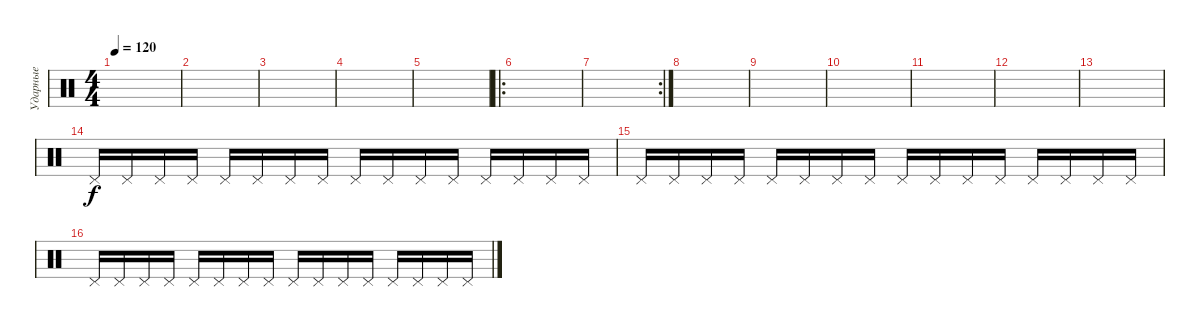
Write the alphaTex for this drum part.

\track ("Ударные" "Ударные") {instrument percussion}
\staff {score}
\articulation defaults
\ts (4 4)
\tempo 120
\clef neutral
\ks c
|
|
|
|
|
\ro
|
\rc 2
|
|
|
|
|
|
|
"Pedal Hi-Hat (hit)".16 "Pedal Hi-Hat (hit)".16 "Pedal Hi-Hat (hit)".16 "Pedal Hi-Hat (hit)".16 "Pedal Hi-Hat (hit)".16 "Pedal Hi-Hat (hit)".16 "Pedal Hi-Hat (hit)".16 "Pedal Hi-Hat (hit)".16 "Pedal Hi-Hat (hit)".16 "Pedal Hi-Hat (hit)".16 "Pedal Hi-Hat (hit)".16 "Pedal Hi-Hat (hit)".16 "Pedal Hi-Hat (hit)".16 "Pedal Hi-Hat (hit)".16 "Pedal Hi-Hat (hit)".16 "Pedal Hi-Hat (hit)".16 |
"Pedal Hi-Hat (hit)".16 "Pedal Hi-Hat (hit)".16 "Pedal Hi-Hat (hit)".16 "Pedal Hi-Hat (hit)".16 "Pedal Hi-Hat (hit)".16 "Pedal Hi-Hat (hit)".16 "Pedal Hi-Hat (hit)".16 "Pedal Hi-Hat (hit)".16 "Pedal Hi-Hat (hit)".16 "Pedal Hi-Hat (hit)".16 "Pedal Hi-Hat (hit)".16 "Pedal Hi-Hat (hit)".16 "Pedal Hi-Hat (hit)".16 "Pedal Hi-Hat (hit)".16 "Pedal Hi-Hat (hit)".16 "Pedal Hi-Hat (hit)".16 |
"Pedal Hi-Hat (hit)".16 "Pedal Hi-Hat (hit)".16 "Pedal Hi-Hat (hit)".16 "Pedal Hi-Hat (hit)".16 "Pedal Hi-Hat (hit)".16 "Pedal Hi-Hat (hit)".16 "Pedal Hi-Hat (hit)".16 "Pedal Hi-Hat (hit)".16 "Pedal Hi-Hat (hit)".16 "Pedal Hi-Hat (hit)".16 "Pedal Hi-Hat (hit)".16 "Pedal Hi-Hat (hit)".16 "Pedal Hi-Hat (hit)".16 "Pedal Hi-Hat (hit)".16 "Pedal Hi-Hat (hit)".16 "Pedal Hi-Hat (hit)".16
